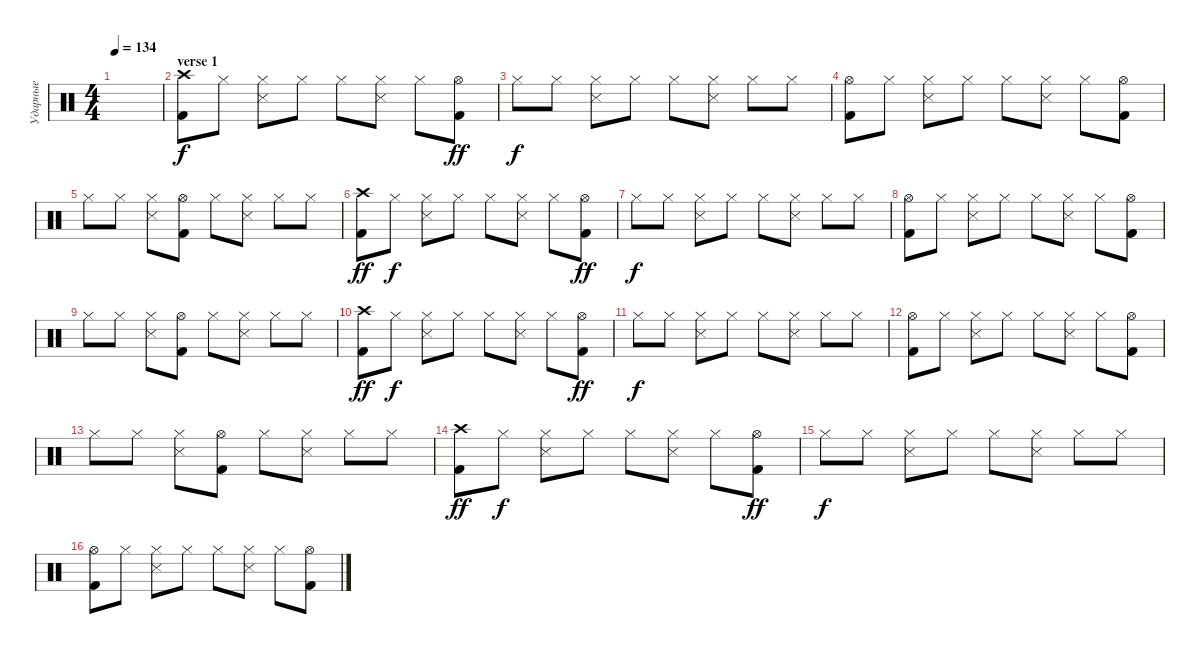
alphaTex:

\track ("Ударные" "Ударные") {instrument percussion}
\staff {score}
\articulation defaults
\ts (4 4)
\tempo 134
\clef neutral
\ks c
|
\section ("" "verse 1")
("Crash high (hit)" "Kick (hit) 2").8 "Hi-Hat (closed)".8{dy f} ("Hi-Hat (closed)" "Snare (side stick) 3").8 "Hi-Hat (closed)".8 "Hi-Hat (closed)".8 ("Hi-Hat (closed)" "Snare (side stick) 3").8 "Hi-Hat (closed)".8 ("Hi-Hat (open)" "Kick (hit) 2").8{dy ff} |
"Hi-Hat (closed)".8{dy f} "Hi-Hat (closed)".8 ("Hi-Hat (closed)" "Snare (side stick) 3").8 "Hi-Hat (closed)".8 "Hi-Hat (closed)".8 ("Hi-Hat (closed)" "Snare (side stick) 3").8 "Hi-Hat (closed)".8 "Hi-Hat (closed)".8 |
("Hi-Hat (open)" "Kick (hit) 2").8 "Hi-Hat (closed)".8 ("Hi-Hat (closed)" "Snare (side stick) 3").8 "Hi-Hat (closed)".8 "Hi-Hat (closed)".8 ("Hi-Hat (closed)" "Snare (side stick) 3").8 "Hi-Hat (closed)".8 ("Hi-Hat (open)" "Kick (hit) 2").8 |
"Hi-Hat (closed)".8 "Hi-Hat (closed)".8 ("Hi-Hat (closed)" "Snare (side stick) 3").8 ("Hi-Hat (open)" "Kick (hit) 2").8 "Hi-Hat (closed)".8 ("Hi-Hat (closed)" "Snare (side stick) 3").8 "Hi-Hat (closed)".8 "Hi-Hat (closed)".8 |
("Crash high (hit)" "Kick (hit) 2").8{dy ff} "Hi-Hat (closed)".8{dy f} ("Hi-Hat (closed)" "Snare (side stick) 3").8 "Hi-Hat (closed)".8 "Hi-Hat (closed)".8 ("Hi-Hat (closed)" "Snare (side stick) 3").8 "Hi-Hat (closed)".8 ("Hi-Hat (open)" "Kick (hit) 2").8{dy ff} |
"Hi-Hat (closed)".8{dy f} "Hi-Hat (closed)".8 ("Hi-Hat (closed)" "Snare (side stick) 3").8 "Hi-Hat (closed)".8 "Hi-Hat (closed)".8 ("Hi-Hat (closed)" "Snare (side stick) 3").8 "Hi-Hat (closed)".8 "Hi-Hat (closed)".8 |
("Hi-Hat (open)" "Kick (hit) 2").8 "Hi-Hat (closed)".8 ("Hi-Hat (closed)" "Snare (side stick) 3").8 "Hi-Hat (closed)".8 "Hi-Hat (closed)".8 ("Hi-Hat (closed)" "Snare (side stick) 3").8 "Hi-Hat (closed)".8 ("Hi-Hat (open)" "Kick (hit) 2").8 |
"Hi-Hat (closed)".8 "Hi-Hat (closed)".8 ("Hi-Hat (closed)" "Snare (side stick) 3").8 ("Hi-Hat (open)" "Kick (hit) 2").8 "Hi-Hat (closed)".8 ("Hi-Hat (closed)" "Snare (side stick) 3").8 "Hi-Hat (closed)".8 "Hi-Hat (closed)".8 |
("Crash high (hit)" "Kick (hit) 2").8{dy ff} "Hi-Hat (closed)".8{dy f} ("Hi-Hat (closed)" "Snare (side stick) 3").8 "Hi-Hat (closed)".8 "Hi-Hat (closed)".8 ("Hi-Hat (closed)" "Snare (side stick) 3").8 "Hi-Hat (closed)".8 ("Hi-Hat (open)" "Kick (hit) 2").8{dy ff} |
"Hi-Hat (closed)".8{dy f} "Hi-Hat (closed)".8 ("Hi-Hat (closed)" "Snare (side stick) 3").8 "Hi-Hat (closed)".8 "Hi-Hat (closed)".8 ("Hi-Hat (closed)" "Snare (side stick) 3").8 "Hi-Hat (closed)".8 "Hi-Hat (closed)".8 |
("Hi-Hat (open)" "Kick (hit) 2").8 "Hi-Hat (closed)".8 ("Hi-Hat (closed)" "Snare (side stick) 3").8 "Hi-Hat (closed)".8 "Hi-Hat (closed)".8 ("Hi-Hat (closed)" "Snare (side stick) 3").8 "Hi-Hat (closed)".8 ("Hi-Hat (open)" "Kick (hit) 2").8 |
"Hi-Hat (closed)".8 "Hi-Hat (closed)".8 ("Hi-Hat (closed)" "Snare (side stick) 3").8 ("Hi-Hat (open)" "Kick (hit) 2").8 "Hi-Hat (closed)".8 ("Hi-Hat (closed)" "Snare (side stick) 3").8 "Hi-Hat (closed)".8 "Hi-Hat (closed)".8 |
("Crash high (hit)" "Kick (hit) 2").8{dy ff} "Hi-Hat (closed)".8{dy f} ("Hi-Hat (closed)" "Snare (side stick) 3").8 "Hi-Hat (closed)".8 "Hi-Hat (closed)".8 ("Hi-Hat (closed)" "Snare (side stick) 3").8 "Hi-Hat (closed)".8 ("Hi-Hat (open)" "Kick (hit) 2").8{dy ff} |
"Hi-Hat (closed)".8{dy f} "Hi-Hat (closed)".8 ("Hi-Hat (closed)" "Snare (side stick) 3").8 "Hi-Hat (closed)".8 "Hi-Hat (closed)".8 ("Hi-Hat (closed)" "Snare (side stick) 3").8 "Hi-Hat (closed)".8 "Hi-Hat (closed)".8 |
("Hi-Hat (open)" "Kick (hit) 2").8 "Hi-Hat (closed)".8 ("Hi-Hat (closed)" "Snare (side stick) 3").8 "Hi-Hat (closed)".8 "Hi-Hat (closed)".8 ("Hi-Hat (closed)" "Snare (side stick) 3").8 "Hi-Hat (closed)".8 ("Hi-Hat (open)" "Kick (hit) 2").8
